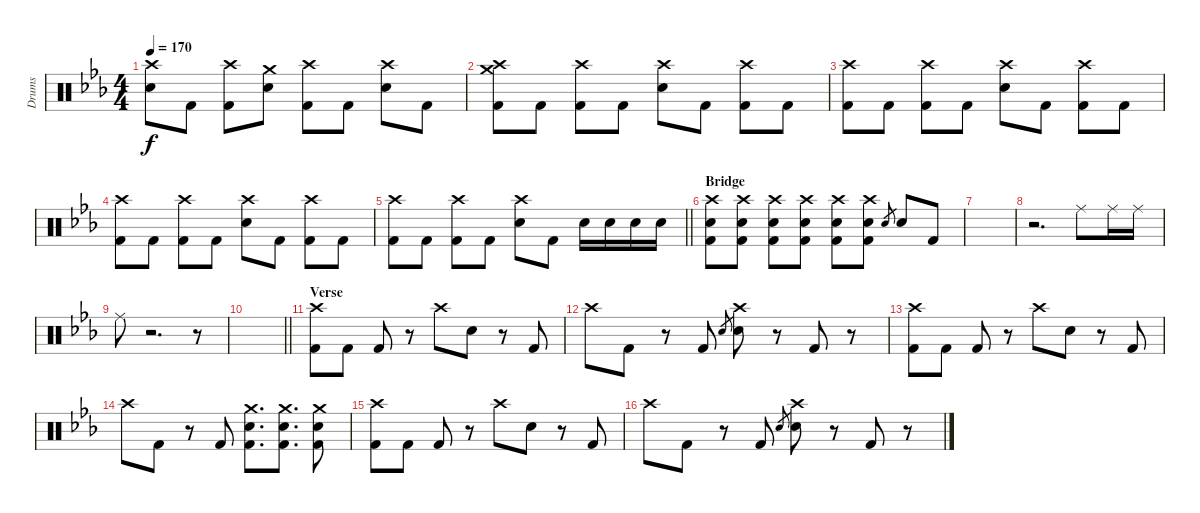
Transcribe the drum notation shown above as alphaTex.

\track ("Drums" "Drums") {instrument percussion}
\staff {score}
\articulation defaults
\ts (4 4)
\tempo 170
\clef neutral
\ks cminor
("Crash high (hit)" "Electric Snare (hit)").8{dy f} "Kick (hit) 2".8 ("Crash high (hit)" "Kick (hit) 2").8 ("Crash medium (hit)" "Electric Snare (hit)").8 ("Crash high (hit)" "Kick (hit) 2").8 "Kick (hit) 2".8 ("Crash high (hit)" "Electric Snare (hit)").8 "Kick (hit) 2".8 |
("Crash high (hit)" "Crash medium (hit)" "Kick (hit) 2").8 "Kick (hit) 2".8 ("Crash high (hit)" "Kick (hit) 2").8 "Kick (hit) 2".8 ("Crash high (hit)" "Electric Snare (hit)").8 "Kick (hit) 2".8 ("Crash high (hit)" "Kick (hit) 2").8 "Kick (hit) 2".8 |
("Crash high (hit)" "Kick (hit) 2").8 "Kick (hit) 2".8 ("Crash high (hit)" "Kick (hit) 2").8 "Kick (hit) 2".8 ("Crash high (hit)" "Electric Snare (hit)").8 "Kick (hit) 2".8 ("Crash high (hit)" "Kick (hit) 2").8 "Kick (hit) 2".8 |
("Crash high (hit)" "Kick (hit) 2").8 "Kick (hit) 2".8 ("Crash high (hit)" "Kick (hit) 2").8 "Kick (hit) 2".8 ("Crash high (hit)" "Electric Snare (hit)").8 "Kick (hit) 2".8 ("Crash high (hit)" "Kick (hit) 2").8 "Kick (hit) 2".8 |
\barLineRight lightlight
("Crash high (hit)" "Kick (hit) 2").8 "Kick (hit) 2".8 ("Crash high (hit)" "Kick (hit) 2").8 "Kick (hit) 2".8 ("Crash high (hit)" "Electric Snare (hit)").8 "Kick (hit) 2".8 "Electric Snare (hit)".16 "Electric Snare (hit)".16 "Electric Snare (hit)".16 "Electric Snare (hit)".16 |
\section ("" "Bridge")
("Crash high (hit)" "Electric Snare (hit)" "Kick (hit) 2").8 ("Crash high (hit)" "Electric Snare (hit)" "Kick (hit) 2").8 ("Crash high (hit)" "Electric Snare (hit)" "Kick (hit) 2").8 ("Crash high (hit)" "Electric Snare (hit)" "Kick (hit) 2").8 ("Crash high (hit)" "Electric Snare (hit)" "Kick (hit) 2").8 ("Crash high (hit)" "Electric Snare (hit)" "Kick (hit) 2").8 "Electric Snare (hit)".8{gr} "Electric Snare (hit)".8 "Kick (hit) 2".8 |
|
r.2{d} "Ride (middle)".8 "Ride (middle)".16 "Ride (middle)".16 |
"Ride (middle)".8 r.2{d} r.8 |
\barLineRight lightlight
|
\section ("" "Verse")
("Crash high (hit)" "Kick (hit) 2").8 "Kick (hit) 2".8 "Kick (hit) 2".8 r.8 "Crash high (hit)".8 "Electric Snare (hit)".8 r.8 "Kick (hit) 2".8 |
"Crash high (hit)".8 "Kick (hit) 2".8 r.8 "Kick (hit) 2".8 "Electric Snare (hit)".8{gr} ("Crash high (hit)" "Electric Snare (hit)").8 r.8 "Kick (hit) 2".8 r.8 |
("Crash high (hit)" "Kick (hit) 2").8 "Kick (hit) 2".8 "Kick (hit) 2".8 r.8 "Crash high (hit)".8 "Electric Snare (hit)".8 r.8 "Kick (hit) 2".8 |
"Crash high (hit)".8 "Kick (hit) 2".8 r.8 "Kick (hit) 2".8 ("Crash medium (hit)" "Electric Snare (hit)" "Kick (hit) 2").8{d} ("Crash medium (hit)" "Electric Snare (hit)" "Kick (hit) 2").8{d} ("Crash medium (hit)" "Electric Snare (hit)" "Kick (hit) 2").8 |
("Crash high (hit)" "Kick (hit) 2").8 "Kick (hit) 2".8 "Kick (hit) 2".8 r.8 "Crash high (hit)".8 "Electric Snare (hit)".8 r.8 "Kick (hit) 2".8 |
"Crash high (hit)".8 "Kick (hit) 2".8 r.8 "Kick (hit) 2".8 "Electric Snare (hit)".8{gr} ("Crash high (hit)" "Electric Snare (hit)").8 r.8 "Kick (hit) 2".8 r.8
